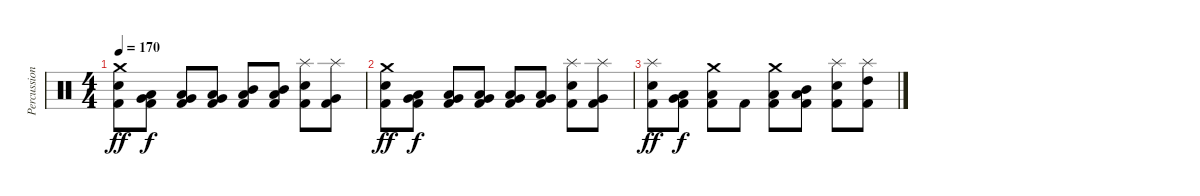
\track ("Percussion" "Percussion") {instrument percussion}
\staff {score}
\articulation defaults
\ts (4 4)
\tempo 170
\clef neutral
\ks c
("Crash medium (hit)" "Snare (hit) 2" "Kick (hit) 2").8{dy ff} ("Very Low Tom (hit)" "Low Tom (hit)" "Kick (hit) 2").8{dy f} ("Very Low Tom (hit)" "Low Tom (hit)" "Kick (hit) 2").8 ("Very Low Tom (hit)" "Low Tom (hit)" "Kick (hit) 2").8 ("Low Tom (hit)" "Mid Tom (hit)" "Kick (hit) 2").8 ("Low Tom (hit)" "Mid Tom (hit)" "Kick (hit) 2").8 ("Splash (hit)" "Snare (hit) 2" "Kick (hit) 2").8 ("Splash (hit)" "Very Low Tom (hit)" "Kick (hit) 2").8 |
("Crash medium (hit)" "Snare (hit) 2" "Kick (hit) 2").8{dy ff} ("Very Low Tom (hit)" "Low Tom (hit)" "Kick (hit) 2").8{dy f} ("Very Low Tom (hit)" "Low Tom (hit)" "Kick (hit) 2").8 ("Very Low Tom (hit)" "Low Tom (hit)" "Kick (hit) 2").8 ("Very Low Tom (hit)" "Low Tom (hit)" "Kick (hit) 2").8 ("Very Low Tom (hit)" "Low Tom (hit)" "Kick (hit) 2").8 ("Splash (hit)" "Snare (hit) 2" "Kick (hit) 2").8 ("Splash (hit)" "Very Low Tom (hit)" "Kick (hit) 2").8 |
("Splash (hit)" "Snare (hit) 2" "Kick (hit) 2").8{dy ff} ("Very Low Tom (hit)" "Low Tom (hit)" "Kick (hit) 2").8{dy f} ("Crash medium (hit)" "Low Tom (hit)" "Kick (hit) 2").8 "Kick (hit) 2".8 ("Crash medium (hit)" "Low Tom (hit)" "Kick (hit) 2").8 ("Low Tom (hit)" "Mid Tom (hit)" "Kick (hit) 2").8 ("Splash (hit)" "Snare (hit) 2" "Kick (hit) 2").8 ("Splash (hit)" "High Tom (hit)" "Kick (hit) 2").8
